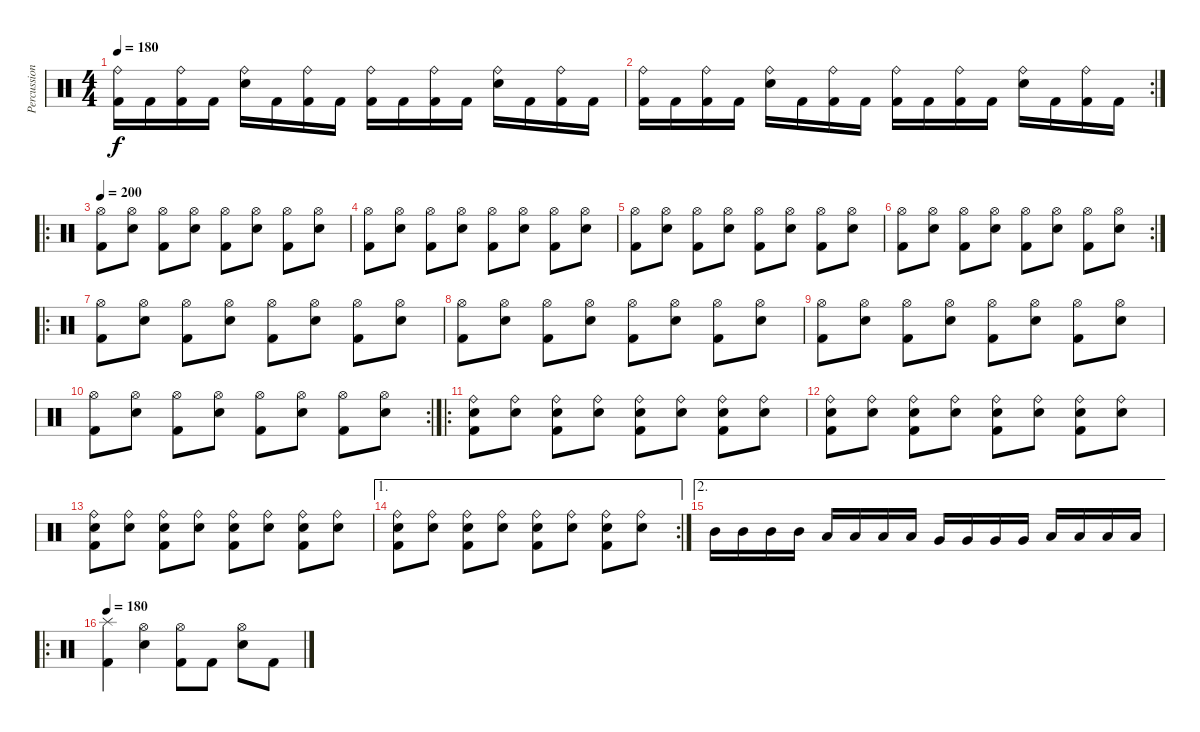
\track ("Percussion" "Percussion") {instrument percussion}
\staff {score}
\articulation defaults
\ts (4 4)
\tempo 180
\clef neutral
\ks c
("Kick (hit) 2" "Ride (bell)").16{dy f} "Kick (hit) 2".16 ("Kick (hit) 2" "Ride (bell)").16 "Kick (hit) 2".16 ("Snare (hit) 2" "Ride (bell)").16 "Kick (hit) 2".16 ("Kick (hit) 2" "Ride (bell)").16 "Kick (hit) 2".16 ("Kick (hit) 2" "Ride (bell)").16 "Kick (hit) 2".16 ("Kick (hit) 2" "Ride (bell)").16 "Kick (hit) 2".16 ("Snare (hit) 2" "Ride (bell)").16 "Kick (hit) 2".16 ("Kick (hit) 2" "Ride (bell)").16 "Kick (hit) 2".16 |
\rc 2
("Kick (hit) 2" "Ride (bell)").16 "Kick (hit) 2".16 ("Kick (hit) 2" "Ride (bell)").16 "Kick (hit) 2".16 ("Snare (hit) 2" "Ride (bell)").16 "Kick (hit) 2".16 ("Kick (hit) 2" "Ride (bell)").16 "Kick (hit) 2".16 ("Kick (hit) 2" "Ride (bell)").16 "Kick (hit) 2".16 ("Kick (hit) 2" "Ride (bell)").16 "Kick (hit) 2".16 ("Snare (hit) 2" "Ride (bell)").16 "Kick (hit) 2".16 ("Kick (hit) 2" "Ride (bell)").16 "Kick (hit) 2".16 |
\ro
\tempo 200
("Kick (hit) 2" "Hi-Hat (open)").8 ("Snare (hit) 2" "Hi-Hat (open)").8 ("Kick (hit) 2" "Hi-Hat (open)").8 ("Snare (hit) 2" "Hi-Hat (open)").8 ("Kick (hit) 2" "Hi-Hat (open)").8 ("Snare (hit) 2" "Hi-Hat (open)").8 ("Kick (hit) 2" "Hi-Hat (open)").8 ("Snare (hit) 2" "Hi-Hat (open)").8 |
("Kick (hit) 2" "Hi-Hat (open)").8 ("Snare (hit) 2" "Hi-Hat (open)").8 ("Kick (hit) 2" "Hi-Hat (open)").8 ("Snare (hit) 2" "Hi-Hat (open)").8 ("Kick (hit) 2" "Hi-Hat (open)").8 ("Snare (hit) 2" "Hi-Hat (open)").8 ("Kick (hit) 2" "Hi-Hat (open)").8 ("Snare (hit) 2" "Hi-Hat (open)").8 |
("Kick (hit) 2" "Hi-Hat (open)").8 ("Snare (hit) 2" "Hi-Hat (open)").8 ("Kick (hit) 2" "Hi-Hat (open)").8 ("Snare (hit) 2" "Hi-Hat (open)").8 ("Kick (hit) 2" "Hi-Hat (open)").8 ("Snare (hit) 2" "Hi-Hat (open)").8 ("Kick (hit) 2" "Hi-Hat (open)").8 ("Snare (hit) 2" "Hi-Hat (open)").8 |
\rc 2
("Kick (hit) 2" "Hi-Hat (open)").8 ("Snare (hit) 2" "Hi-Hat (open)").8 ("Kick (hit) 2" "Hi-Hat (open)").8 ("Snare (hit) 2" "Hi-Hat (open)").8 ("Kick (hit) 2" "Hi-Hat (open)").8 ("Snare (hit) 2" "Hi-Hat (open)").8 ("Kick (hit) 2" "Hi-Hat (open)").8 ("Snare (hit) 2" "Hi-Hat (open)").8 |
\ro
("Kick (hit) 2" "Hi-Hat (open)").8 ("Snare (hit) 2" "Hi-Hat (open)").8 ("Kick (hit) 2" "Hi-Hat (open)").8 ("Snare (hit) 2" "Hi-Hat (open)").8 ("Kick (hit) 2" "Hi-Hat (open)").8 ("Snare (hit) 2" "Hi-Hat (open)").8 ("Kick (hit) 2" "Hi-Hat (open)").8 ("Snare (hit) 2" "Hi-Hat (open)").8 |
("Kick (hit) 2" "Hi-Hat (open)").8 ("Snare (hit) 2" "Hi-Hat (open)").8 ("Kick (hit) 2" "Hi-Hat (open)").8 ("Snare (hit) 2" "Hi-Hat (open)").8 ("Kick (hit) 2" "Hi-Hat (open)").8 ("Snare (hit) 2" "Hi-Hat (open)").8 ("Kick (hit) 2" "Hi-Hat (open)").8 ("Snare (hit) 2" "Hi-Hat (open)").8 |
("Kick (hit) 2" "Hi-Hat (open)").8 ("Snare (hit) 2" "Hi-Hat (open)").8 ("Kick (hit) 2" "Hi-Hat (open)").8 ("Snare (hit) 2" "Hi-Hat (open)").8 ("Kick (hit) 2" "Hi-Hat (open)").8 ("Snare (hit) 2" "Hi-Hat (open)").8 ("Kick (hit) 2" "Hi-Hat (open)").8 ("Snare (hit) 2" "Hi-Hat (open)").8 |
\rc 2
("Kick (hit) 2" "Hi-Hat (open)").8 ("Snare (hit) 2" "Hi-Hat (open)").8 ("Kick (hit) 2" "Hi-Hat (open)").8 ("Snare (hit) 2" "Hi-Hat (open)").8 ("Kick (hit) 2" "Hi-Hat (open)").8 ("Snare (hit) 2" "Hi-Hat (open)").8 ("Kick (hit) 2" "Hi-Hat (open)").8 ("Snare (hit) 2" "Hi-Hat (open)").8 |
\ro
("Kick (hit) 2" "Snare (hit) 2" "Ride (bell)").8 ("Snare (hit) 2" "Ride (bell)").8 ("Kick (hit) 2" "Snare (hit) 2" "Ride (bell)").8 ("Snare (hit) 2" "Ride (bell)").8 ("Kick (hit) 2" "Snare (hit) 2" "Ride (bell)").8 ("Snare (hit) 2" "Ride (bell)").8 ("Kick (hit) 2" "Snare (hit) 2" "Ride (bell)").8 ("Snare (hit) 2" "Ride (bell)").8 |
("Kick (hit) 2" "Snare (hit) 2" "Ride (bell)").8 ("Snare (hit) 2" "Ride (bell)").8 ("Kick (hit) 2" "Snare (hit) 2" "Ride (bell)").8 ("Snare (hit) 2" "Ride (bell)").8 ("Kick (hit) 2" "Snare (hit) 2" "Ride (bell)").8 ("Snare (hit) 2" "Ride (bell)").8 ("Kick (hit) 2" "Snare (hit) 2" "Ride (bell)").8 ("Snare (hit) 2" "Ride (bell)").8 |
("Kick (hit) 2" "Snare (hit) 2" "Ride (bell)").8 ("Snare (hit) 2" "Ride (bell)").8 ("Kick (hit) 2" "Snare (hit) 2" "Ride (bell)").8 ("Snare (hit) 2" "Ride (bell)").8 ("Kick (hit) 2" "Snare (hit) 2" "Ride (bell)").8 ("Snare (hit) 2" "Ride (bell)").8 ("Kick (hit) 2" "Snare (hit) 2" "Ride (bell)").8 ("Snare (hit) 2" "Ride (bell)").8 |
\ae 1
\rc 2
("Kick (hit) 2" "Snare (hit) 2" "Ride (bell)").8 ("Snare (hit) 2" "Ride (bell)").8 ("Kick (hit) 2" "Snare (hit) 2" "Ride (bell)").8 ("Snare (hit) 2" "Ride (bell)").8 ("Kick (hit) 2" "Snare (hit) 2" "Ride (bell)").8 ("Snare (hit) 2" "Ride (bell)").8 ("Kick (hit) 2" "Snare (hit) 2" "Ride (bell)").8 ("Snare (hit) 2" "Ride (bell)").8 |
\ae 2 "Mid Tom (hit)".16 "Mid Tom (hit)".16 "Mid Tom (hit)".16 "Mid Tom (hit)".16 "Low Tom (hit)".16 "Low Tom (hit)".16 "Low Tom (hit)".16 "Low Tom (hit)".16 "Very Low Tom (hit)".16 "Very Low Tom (hit)".16 "Very Low Tom (hit)".16 "Very Low Tom (hit)".16 "Low Floor Tom (hit)".16 "Low Floor Tom (hit)".16 "Low Floor Tom (hit)".16 "Low Floor Tom (hit)".16
|
\ro
\tempo 180
("Kick (hit) 2" "Splash (hit)").4 ("Snare (hit) 2" "Hi-Hat (open)").4 ("Kick (hit) 2" "Hi-Hat (open)").8 "Kick (hit) 2".8 ("Snare (hit) 2" "Hi-Hat (open)").8 "Kick (hit) 2".8
